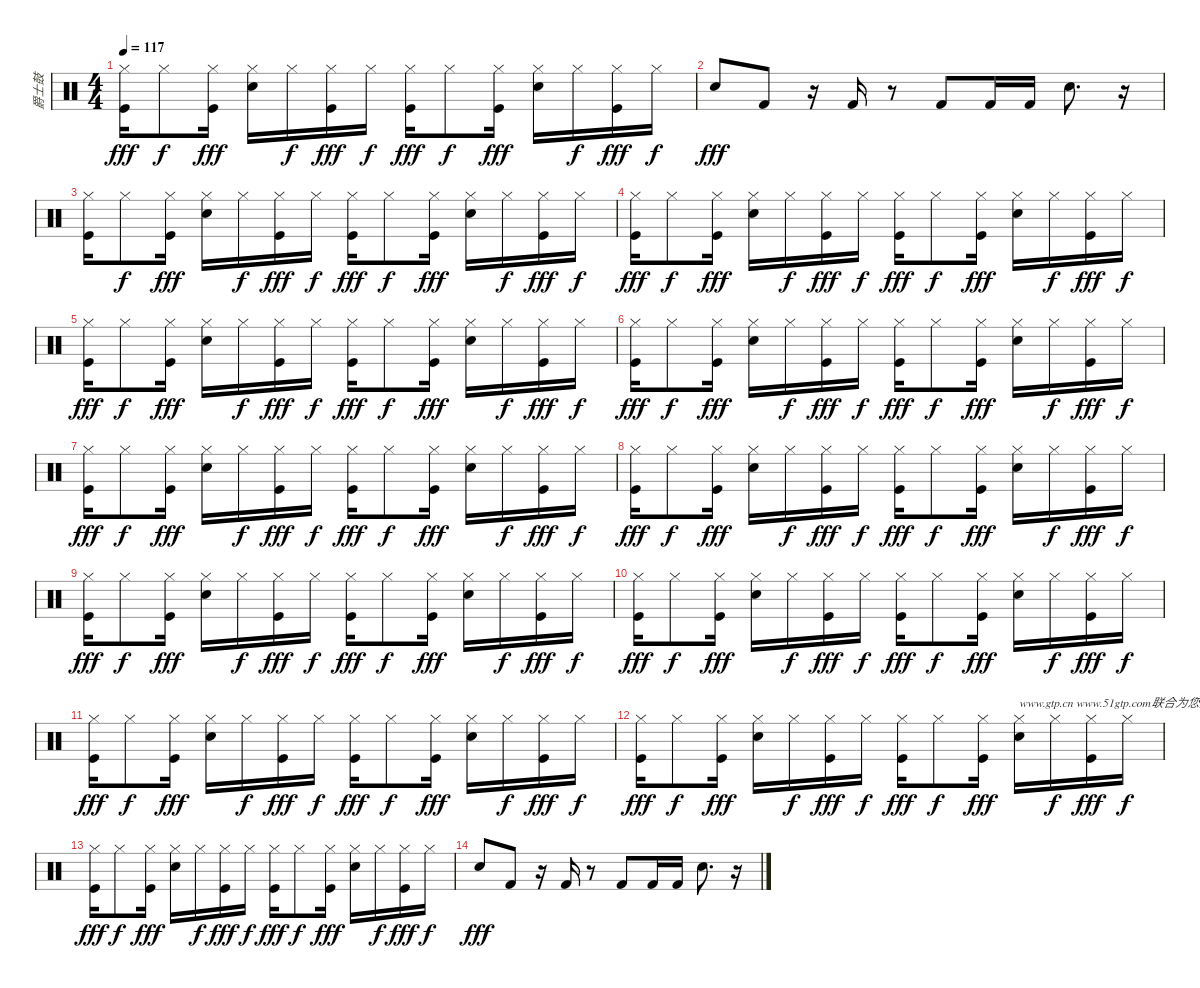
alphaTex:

\track ("爵士鼓" "爵士鼓") {instrument percussion}
\staff {score}
\articulation defaults
\ts (4 4)
\tempo 117
\clef neutral
\ks c
("Kick (hit)" "Hi-Hat (closed)").16{dy fff} "Hi-Hat (closed)".8{dy f} ("Kick (hit)" "Hi-Hat (closed)").16{dy fff} ("Snare (hit) 2" "Hi-Hat (closed)").16 "Hi-Hat (closed)".16{dy f} ("Kick (hit)" "Hi-Hat (closed)").16{dy fff} "Hi-Hat (closed)".16{dy f} ("Kick (hit)" "Hi-Hat (closed)").16{dy fff} "Hi-Hat (closed)".8{dy f} ("Kick (hit)" "Hi-Hat (closed)").16{dy fff} ("Snare (hit) 2" "Hi-Hat (closed)").16 "Hi-Hat (closed)".16{dy f} ("Kick (hit)" "Hi-Hat (closed)").16{dy fff} "Hi-Hat (closed)".16{dy f} |
"Snare (hit) 2".8{dy fff} "Kick (hit) 2".8 r.16 "Kick (hit) 2".16 r.8 "Kick (hit) 2".8 "Kick (hit) 2".16 "Kick (hit) 2".16 "Snare (hit) 2".8{d} r.16 |
("Kick (hit)" "Hi-Hat (closed)").16 "Hi-Hat (closed)".8{dy f} ("Kick (hit)" "Hi-Hat (closed)").16{dy fff} ("Snare (hit) 2" "Hi-Hat (closed)").16 "Hi-Hat (closed)".16{dy f} ("Kick (hit)" "Hi-Hat (closed)").16{dy fff} "Hi-Hat (closed)".16{dy f} ("Kick (hit)" "Hi-Hat (closed)").16{dy fff} "Hi-Hat (closed)".8{dy f} ("Kick (hit)" "Hi-Hat (closed)").16{dy fff} ("Snare (hit) 2" "Hi-Hat (closed)").16 "Hi-Hat (closed)".16{dy f} ("Kick (hit)" "Hi-Hat (closed)").16{dy fff} "Hi-Hat (closed)".16{dy f} |
("Kick (hit)" "Hi-Hat (closed)").16{dy fff} "Hi-Hat (closed)".8{dy f} ("Kick (hit)" "Hi-Hat (closed)").16{dy fff} ("Snare (hit) 2" "Hi-Hat (closed)").16 "Hi-Hat (closed)".16{dy f} ("Kick (hit)" "Hi-Hat (closed)").16{dy fff} "Hi-Hat (closed)".16{dy f} ("Kick (hit)" "Hi-Hat (closed)").16{dy fff} "Hi-Hat (closed)".8{dy f} ("Kick (hit)" "Hi-Hat (closed)").16{dy fff} ("Snare (hit) 2" "Hi-Hat (closed)").16 "Hi-Hat (closed)".16{dy f} ("Kick (hit)" "Hi-Hat (closed)").16{dy fff} "Hi-Hat (closed)".16{dy f} |
("Kick (hit)" "Hi-Hat (closed)").16{dy fff} "Hi-Hat (closed)".8{dy f} ("Kick (hit)" "Hi-Hat (closed)").16{dy fff} ("Snare (hit) 2" "Hi-Hat (closed)").16 "Hi-Hat (closed)".16{dy f} ("Kick (hit)" "Hi-Hat (closed)").16{dy fff} "Hi-Hat (closed)".16{dy f} ("Kick (hit)" "Hi-Hat (closed)").16{dy fff} "Hi-Hat (closed)".8{dy f} ("Kick (hit)" "Hi-Hat (closed)").16{dy fff} ("Snare (hit) 2" "Hi-Hat (closed)").16 "Hi-Hat (closed)".16{dy f} ("Kick (hit)" "Hi-Hat (closed)").16{dy fff} "Hi-Hat (closed)".16{dy f} |
("Kick (hit)" "Hi-Hat (closed)").16{dy fff} "Hi-Hat (closed)".8{dy f} ("Kick (hit)" "Hi-Hat (closed)").16{dy fff} ("Snare (hit) 2" "Hi-Hat (closed)").16 "Hi-Hat (closed)".16{dy f} ("Kick (hit)" "Hi-Hat (closed)").16{dy fff} "Hi-Hat (closed)".16{dy f} ("Kick (hit)" "Hi-Hat (closed)").16{dy fff} "Hi-Hat (closed)".8{dy f} ("Kick (hit)" "Hi-Hat (closed)").16{dy fff} ("Snare (hit) 2" "Hi-Hat (closed)").16 "Hi-Hat (closed)".16{dy f} ("Kick (hit)" "Hi-Hat (closed)").16{dy fff} "Hi-Hat (closed)".16{dy f} |
("Kick (hit)" "Hi-Hat (closed)").16{dy fff} "Hi-Hat (closed)".8{dy f} ("Kick (hit)" "Hi-Hat (closed)").16{dy fff} ("Snare (hit) 2" "Hi-Hat (closed)").16 "Hi-Hat (closed)".16{dy f} ("Kick (hit)" "Hi-Hat (closed)").16{dy fff} "Hi-Hat (closed)".16{dy f} ("Kick (hit)" "Hi-Hat (closed)").16{dy fff} "Hi-Hat (closed)".8{dy f} ("Kick (hit)" "Hi-Hat (closed)").16{dy fff} ("Snare (hit) 2" "Hi-Hat (closed)").16 "Hi-Hat (closed)".16{dy f} ("Kick (hit)" "Hi-Hat (closed)").16{dy fff} "Hi-Hat (closed)".16{dy f} |
("Kick (hit)" "Hi-Hat (closed)").16{dy fff} "Hi-Hat (closed)".8{dy f} ("Kick (hit)" "Hi-Hat (closed)").16{dy fff} ("Snare (hit) 2" "Hi-Hat (closed)").16 "Hi-Hat (closed)".16{dy f} ("Kick (hit)" "Hi-Hat (closed)").16{dy fff} "Hi-Hat (closed)".16{dy f} ("Kick (hit)" "Hi-Hat (closed)").16{dy fff} "Hi-Hat (closed)".8{dy f} ("Kick (hit)" "Hi-Hat (closed)").16{dy fff} ("Snare (hit) 2" "Hi-Hat (closed)").16 "Hi-Hat (closed)".16{dy f} ("Kick (hit)" "Hi-Hat (closed)").16{dy fff} "Hi-Hat (closed)".16{dy f} |
("Kick (hit)" "Hi-Hat (closed)").16{dy fff} "Hi-Hat (closed)".8{dy f} ("Kick (hit)" "Hi-Hat (closed)").16{dy fff} ("Snare (hit) 2" "Hi-Hat (closed)").16 "Hi-Hat (closed)".16{dy f} ("Kick (hit)" "Hi-Hat (closed)").16{dy fff} "Hi-Hat (closed)".16{dy f} ("Kick (hit)" "Hi-Hat (closed)").16{dy fff} "Hi-Hat (closed)".8{dy f} ("Kick (hit)" "Hi-Hat (closed)").16{dy fff} ("Snare (hit) 2" "Hi-Hat (closed)").16 "Hi-Hat (closed)".16{dy f} ("Kick (hit)" "Hi-Hat (closed)").16{dy fff} "Hi-Hat (closed)".16{dy f} |
("Kick (hit)" "Hi-Hat (closed)").16{dy fff} "Hi-Hat (closed)".8{dy f} ("Kick (hit)" "Hi-Hat (closed)").16{dy fff} ("Snare (hit) 2" "Hi-Hat (closed)").16 "Hi-Hat (closed)".16{dy f} ("Kick (hit)" "Hi-Hat (closed)").16{dy fff} "Hi-Hat (closed)".16{dy f} ("Kick (hit)" "Hi-Hat (closed)").16{dy fff} "Hi-Hat (closed)".8{dy f} ("Kick (hit)" "Hi-Hat (closed)").16{dy fff} ("Snare (hit) 2" "Hi-Hat (closed)").16 "Hi-Hat (closed)".16{dy f} ("Kick (hit)" "Hi-Hat (closed)").16{dy fff} "Hi-Hat (closed)".16{dy f} |
("Kick (hit)" "Hi-Hat (closed)").16{dy fff} "Hi-Hat (closed)".8{dy f} ("Kick (hit)" "Hi-Hat (closed)").16{dy fff} ("Snare (hit) 2" "Hi-Hat (closed)").16 "Hi-Hat (closed)".16{dy f} ("Kick (hit)" "Hi-Hat (closed)").16{dy fff} "Hi-Hat (closed)".16{dy f} ("Kick (hit)" "Hi-Hat (closed)").16{dy fff} "Hi-Hat (closed)".8{dy f} ("Kick (hit)" "Hi-Hat (closed)").16{dy fff} ("Snare (hit) 2" "Hi-Hat (closed)").16 "Hi-Hat (closed)".16{dy f} ("Kick (hit)" "Hi-Hat (closed)").16{dy fff} "Hi-Hat (closed)".16{dy f} |
("Kick (hit)" "Hi-Hat (closed)").16{dy fff} "Hi-Hat (closed)".8{dy f} ("Kick (hit)" "Hi-Hat (closed)").16{dy fff} ("Snare (hit) 2" "Hi-Hat (closed)").16 "Hi-Hat (closed)".16{dy f} ("Kick (hit)" "Hi-Hat (closed)").16{dy fff} "Hi-Hat (closed)".16{dy f} ("Kick (hit)" "Hi-Hat (closed)").16{dy fff} "Hi-Hat (closed)".8{dy f} ("Kick (hit)" "Hi-Hat (closed)").16{dy fff} ("Snare (hit) 2" "Hi-Hat (closed)").16{txt "www.gtp.cn www.51gtp.com联合为您提供优秀的GTP!"} "Hi-Hat (closed)".16{dy f} ("Kick (hit)" "Hi-Hat (closed)").16{dy fff} "Hi-Hat (closed)".16{dy f} |
("Kick (hit)" "Hi-Hat (closed)").16{dy fff} "Hi-Hat (closed)".8{dy f} ("Kick (hit)" "Hi-Hat (closed)").16{dy fff} ("Snare (hit) 2" "Hi-Hat (closed)").16 "Hi-Hat (closed)".16{dy f} ("Kick (hit)" "Hi-Hat (closed)").16{dy fff} "Hi-Hat (closed)".16{dy f} ("Kick (hit)" "Hi-Hat (closed)").16{dy fff} "Hi-Hat (closed)".8{dy f} ("Kick (hit)" "Hi-Hat (closed)").16{dy fff} ("Snare (hit) 2" "Hi-Hat (closed)").16 "Hi-Hat (closed)".16{dy f} ("Kick (hit)" "Hi-Hat (closed)").16{dy fff} "Hi-Hat (closed)".16{dy f} |
"Snare (hit) 2".8{dy fff} "Kick (hit) 2".8 r.16 "Kick (hit) 2".16 r.8 "Kick (hit) 2".8 "Kick (hit) 2".16 "Kick (hit) 2".16 "Snare (hit) 2".8{d} r.16
